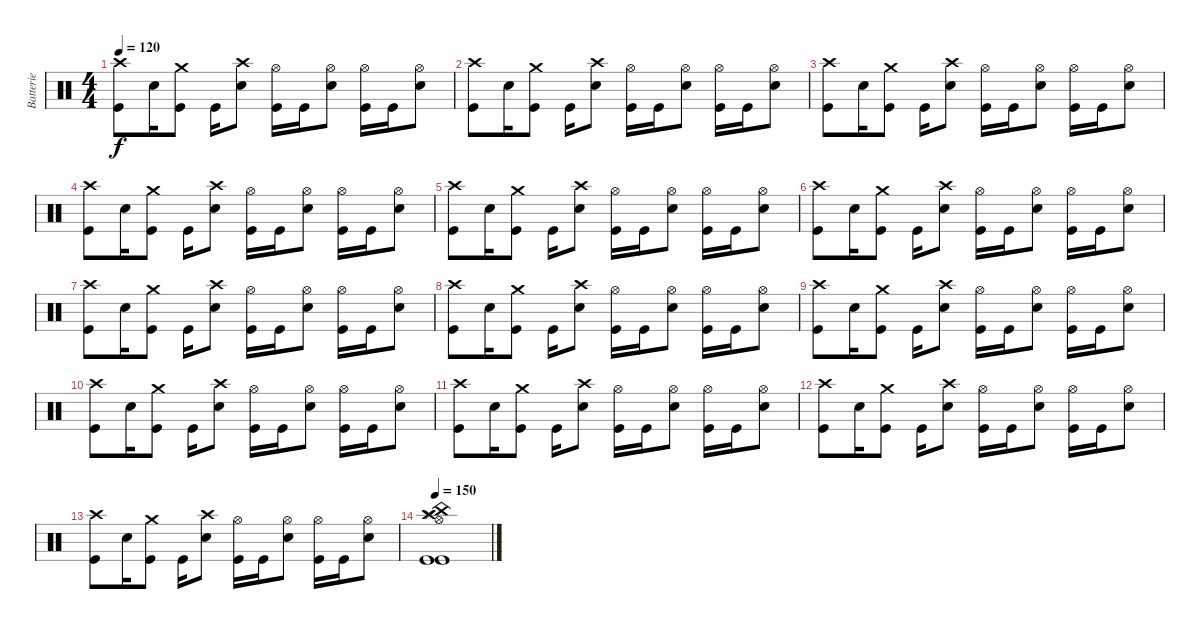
\track ("Batterie" "Batterie") {instrument percussion}
\staff {score}
\articulation defaults
\ts (4 4)
\tempo 120
\clef neutral
\ks c
("Crash high (hit)" "Kick (hit)").8{dy f} "Snare (hit) 2".16 ("Crash medium (hit)" "Kick (hit)").8 "Kick (hit)".16 ("Crash high (hit)" "Snare (hit) 2").8 ("Hi-Hat (open)" "Kick (hit)").16 "Kick (hit)".16 ("Hi-Hat (open)" "Snare (hit) 2").8 ("Hi-Hat (open)" "Kick (hit)").16 "Kick (hit)".16 ("Hi-Hat (open)" "Snare (hit) 2").8 |
("Crash high (hit)" "Kick (hit)").8 "Snare (hit) 2".16 ("Crash medium (hit)" "Kick (hit)").8 "Kick (hit)".16 ("Crash high (hit)" "Snare (hit) 2").8 ("Hi-Hat (open)" "Kick (hit)").16 "Kick (hit)".16 ("Hi-Hat (open)" "Snare (hit) 2").8 ("Hi-Hat (open)" "Kick (hit)").16 "Kick (hit)".16 ("Hi-Hat (open)" "Snare (hit) 2").8 |
("Crash high (hit)" "Kick (hit)").8 "Snare (hit) 2".16 ("Crash medium (hit)" "Kick (hit)").8 "Kick (hit)".16 ("Crash high (hit)" "Snare (hit) 2").8 ("Hi-Hat (open)" "Kick (hit)").16 "Kick (hit)".16 ("Hi-Hat (open)" "Snare (hit) 2").8 ("Hi-Hat (open)" "Kick (hit)").16 "Kick (hit)".16 ("Hi-Hat (open)" "Snare (hit) 2").8 |
("Crash high (hit)" "Kick (hit)").8 "Snare (hit) 2".16 ("Crash medium (hit)" "Kick (hit)").8 "Kick (hit)".16 ("Crash high (hit)" "Snare (hit) 2").8 ("Hi-Hat (open)" "Kick (hit)").16 "Kick (hit)".16 ("Hi-Hat (open)" "Snare (hit) 2").8 ("Hi-Hat (open)" "Kick (hit)").16 "Kick (hit)".16 ("Hi-Hat (open)" "Snare (hit) 2").8 |
("Crash high (hit)" "Kick (hit)").8 "Snare (hit) 2".16 ("Crash medium (hit)" "Kick (hit)").8 "Kick (hit)".16 ("Crash high (hit)" "Snare (hit) 2").8 ("Hi-Hat (open)" "Kick (hit)").16 "Kick (hit)".16 ("Hi-Hat (open)" "Snare (hit) 2").8 ("Hi-Hat (open)" "Kick (hit)").16 "Kick (hit)".16 ("Hi-Hat (open)" "Snare (hit) 2").8 |
("Crash high (hit)" "Kick (hit)").8 "Snare (hit) 2".16 ("Crash medium (hit)" "Kick (hit)").8 "Kick (hit)".16 ("Crash high (hit)" "Snare (hit) 2").8 ("Hi-Hat (open)" "Kick (hit)").16 "Kick (hit)".16 ("Hi-Hat (open)" "Snare (hit) 2").8 ("Hi-Hat (open)" "Kick (hit)").16 "Kick (hit)".16 ("Hi-Hat (open)" "Snare (hit) 2").8 |
("Crash high (hit)" "Kick (hit)").8 "Snare (hit) 2".16 ("Crash medium (hit)" "Kick (hit)").8 "Kick (hit)".16 ("Crash high (hit)" "Snare (hit) 2").8 ("Hi-Hat (open)" "Kick (hit)").16 "Kick (hit)".16 ("Hi-Hat (open)" "Snare (hit) 2").8 ("Hi-Hat (open)" "Kick (hit)").16 "Kick (hit)".16 ("Hi-Hat (open)" "Snare (hit) 2").8 |
("Crash high (hit)" "Kick (hit)").8 "Snare (hit) 2".16 ("Crash medium (hit)" "Kick (hit)").8 "Kick (hit)".16 ("Crash high (hit)" "Snare (hit) 2").8 ("Hi-Hat (open)" "Kick (hit)").16 "Kick (hit)".16 ("Hi-Hat (open)" "Snare (hit) 2").8 ("Hi-Hat (open)" "Kick (hit)").16 "Kick (hit)".16 ("Hi-Hat (open)" "Snare (hit) 2").8 |
("Crash high (hit)" "Kick (hit)").8 "Snare (hit) 2".16 ("Crash medium (hit)" "Kick (hit)").8 "Kick (hit)".16 ("Crash high (hit)" "Snare (hit) 2").8 ("Hi-Hat (open)" "Kick (hit)").16 "Kick (hit)".16 ("Hi-Hat (open)" "Snare (hit) 2").8 ("Hi-Hat (open)" "Kick (hit)").16 "Kick (hit)".16 ("Hi-Hat (open)" "Snare (hit) 2").8 |
("Crash high (hit)" "Kick (hit)").8 "Snare (hit) 2".16 ("Crash medium (hit)" "Kick (hit)").8 "Kick (hit)".16 ("Crash high (hit)" "Snare (hit) 2").8 ("Hi-Hat (open)" "Kick (hit)").16 "Kick (hit)".16 ("Hi-Hat (open)" "Snare (hit) 2").8 ("Hi-Hat (open)" "Kick (hit)").16 "Kick (hit)".16 ("Hi-Hat (open)" "Snare (hit) 2").8 |
("Crash high (hit)" "Kick (hit)").8 "Snare (hit) 2".16 ("Crash medium (hit)" "Kick (hit)").8 "Kick (hit)".16 ("Crash high (hit)" "Snare (hit) 2").8 ("Hi-Hat (open)" "Kick (hit)").16 "Kick (hit)".16 ("Hi-Hat (open)" "Snare (hit) 2").8 ("Hi-Hat (open)" "Kick (hit)").16 "Kick (hit)".16 ("Hi-Hat (open)" "Snare (hit) 2").8 |
("Crash high (hit)" "Kick (hit)").8 "Snare (hit) 2".16 ("Crash medium (hit)" "Kick (hit)").8 "Kick (hit)".16 ("Crash high (hit)" "Snare (hit) 2").8 ("Hi-Hat (open)" "Kick (hit)").16 "Kick (hit)".16 ("Hi-Hat (open)" "Snare (hit) 2").8 ("Hi-Hat (open)" "Kick (hit)").16 "Kick (hit)".16 ("Hi-Hat (open)" "Snare (hit) 2").8 |
("Crash high (hit)" "Kick (hit)").8 "Snare (hit) 2".16 ("Crash medium (hit)" "Kick (hit)").8 "Kick (hit)".16 ("Crash high (hit)" "Snare (hit) 2").8 ("Hi-Hat (open)" "Kick (hit)").16 "Kick (hit)".16 ("Hi-Hat (open)" "Snare (hit) 2").8 ("Hi-Hat (open)" "Kick (hit)").16 "Kick (hit)".16 ("Hi-Hat (open)" "Snare (hit) 2").8 |
\tempo 150
("Crash high (hit)" "Hi-Hat (open)" "China (hit)" "Splash (hit)" "Kick (hit)" "Kick (hit)").1
